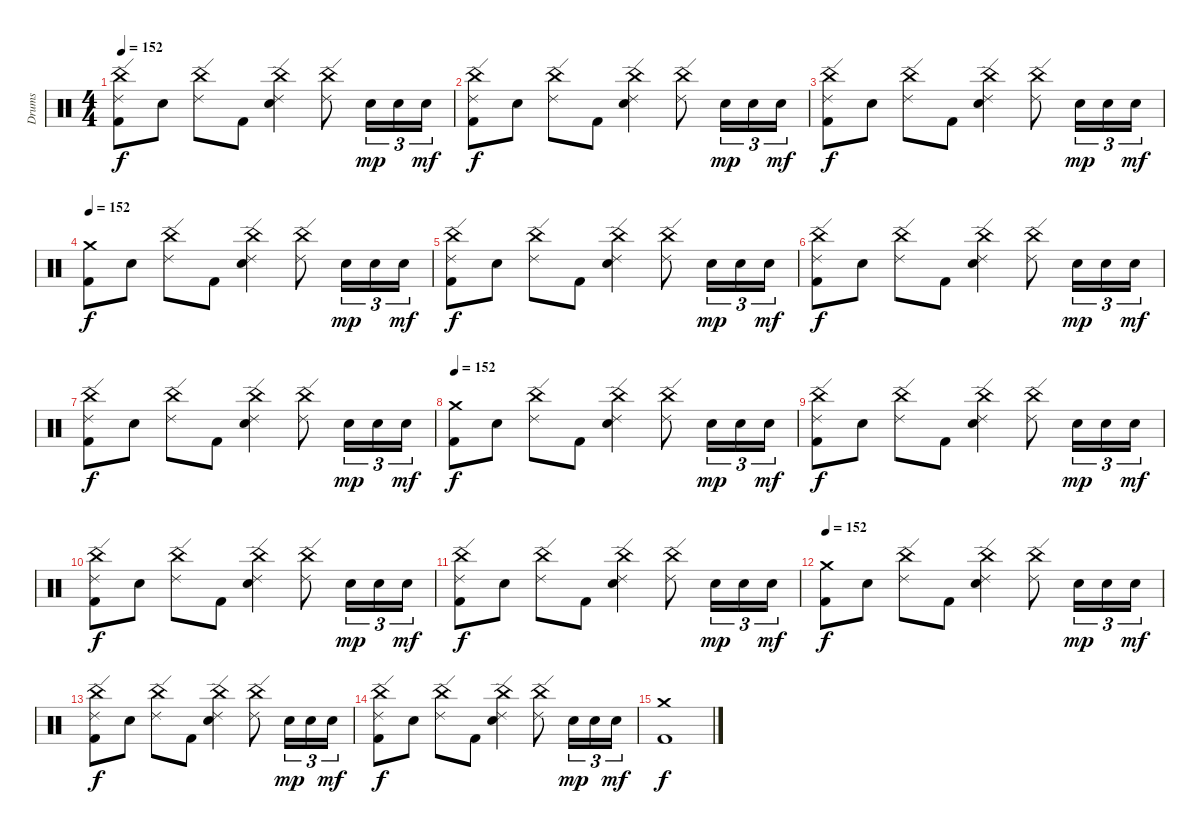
\track ("Drums" "Drums") {instrument percussion}
\staff {score}
\articulation defaults
\ts (4 4)
\tempo 152
\clef neutral
\ks c
("China (hit)" "Ride (edge) 2" "Kick (hit) 2").8{dy f} "Snare (hit) 2".8 ("China (hit)" "Ride (edge) 2").8 "Kick (hit) 2".8 ("China (hit)" "Ride (edge) 2" "Snare (hit) 2").4 ("China (hit)" "Ride (edge) 2").8 "Snare (hit) 2".16{tu (3 2) dy mp} "Snare (hit) 2".16{tu (3 2)} "Snare (hit) 2".16{tu (3 2) dy mf} |
("China (hit)" "Ride (edge) 2" "Kick (hit) 2").8{dy f} "Snare (hit) 2".8 ("China (hit)" "Ride (edge) 2").8 "Kick (hit) 2".8 ("China (hit)" "Ride (edge) 2" "Snare (hit) 2").4 ("China (hit)" "Ride (edge) 2").8 "Snare (hit) 2".16{tu (3 2) dy mp} "Snare (hit) 2".16{tu (3 2)} "Snare (hit) 2".16{tu (3 2) dy mf} |
("China (hit)" "Ride (edge) 2" "Kick (hit) 2").8{dy f} "Snare (hit) 2".8 ("China (hit)" "Ride (edge) 2").8 "Kick (hit) 2".8 ("China (hit)" "Ride (edge) 2" "Snare (hit) 2").4 ("China (hit)" "Ride (edge) 2").8 "Snare (hit) 2".16{tu (3 2) dy mp} "Snare (hit) 2".16{tu (3 2)} "Snare (hit) 2".16{tu (3 2) dy mf} |
\tempo 152
("Crash medium (hit)" "Kick (hit) 2").8{dy f} "Snare (hit) 2".8 ("China (hit)" "Ride (edge) 2").8 "Kick (hit) 2".8 ("China (hit)" "Ride (edge) 2" "Snare (hit) 2").4 ("China (hit)" "Ride (edge) 2").8 "Snare (hit) 2".16{tu (3 2) dy mp} "Snare (hit) 2".16{tu (3 2)} "Snare (hit) 2".16{tu (3 2) dy mf} |
("China (hit)" "Ride (edge) 2" "Kick (hit) 2").8{dy f} "Snare (hit) 2".8 ("China (hit)" "Ride (edge) 2").8 "Kick (hit) 2".8 ("China (hit)" "Ride (edge) 2" "Snare (hit) 2").4 ("China (hit)" "Ride (edge) 2").8 "Snare (hit) 2".16{tu (3 2) dy mp} "Snare (hit) 2".16{tu (3 2)} "Snare (hit) 2".16{tu (3 2) dy mf} |
("China (hit)" "Ride (edge) 2" "Kick (hit) 2").8{dy f} "Snare (hit) 2".8 ("China (hit)" "Ride (edge) 2").8 "Kick (hit) 2".8 ("China (hit)" "Ride (edge) 2" "Snare (hit) 2").4 ("China (hit)" "Ride (edge) 2").8 "Snare (hit) 2".16{tu (3 2) dy mp} "Snare (hit) 2".16{tu (3 2)} "Snare (hit) 2".16{tu (3 2) dy mf} |
("China (hit)" "Ride (edge) 2" "Kick (hit) 2").8{dy f} "Snare (hit) 2".8 ("China (hit)" "Ride (edge) 2").8 "Kick (hit) 2".8 ("China (hit)" "Ride (edge) 2" "Snare (hit) 2").4 ("China (hit)" "Ride (edge) 2").8 "Snare (hit) 2".16{tu (3 2) dy mp} "Snare (hit) 2".16{tu (3 2)} "Snare (hit) 2".16{tu (3 2) dy mf} |
\tempo 152
("Crash medium (hit)" "Kick (hit) 2").8{dy f} "Snare (hit) 2".8 ("China (hit)" "Ride (edge) 2").8 "Kick (hit) 2".8 ("China (hit)" "Ride (edge) 2" "Snare (hit) 2").4 ("China (hit)" "Ride (edge) 2").8 "Snare (hit) 2".16{tu (3 2) dy mp} "Snare (hit) 2".16{tu (3 2)} "Snare (hit) 2".16{tu (3 2) dy mf} |
("China (hit)" "Ride (edge) 2" "Kick (hit) 2").8{dy f} "Snare (hit) 2".8 ("China (hit)" "Ride (edge) 2").8 "Kick (hit) 2".8 ("China (hit)" "Ride (edge) 2" "Snare (hit) 2").4 ("China (hit)" "Ride (edge) 2").8 "Snare (hit) 2".16{tu (3 2) dy mp} "Snare (hit) 2".16{tu (3 2)} "Snare (hit) 2".16{tu (3 2) dy mf} |
("China (hit)" "Ride (edge) 2" "Kick (hit) 2").8{dy f} "Snare (hit) 2".8 ("China (hit)" "Ride (edge) 2").8 "Kick (hit) 2".8 ("China (hit)" "Ride (edge) 2" "Snare (hit) 2").4 ("China (hit)" "Ride (edge) 2").8 "Snare (hit) 2".16{tu (3 2) dy mp} "Snare (hit) 2".16{tu (3 2)} "Snare (hit) 2".16{tu (3 2) dy mf} |
("China (hit)" "Ride (edge) 2" "Kick (hit) 2").8{dy f} "Snare (hit) 2".8 ("China (hit)" "Ride (edge) 2").8 "Kick (hit) 2".8 ("China (hit)" "Ride (edge) 2" "Snare (hit) 2").4 ("China (hit)" "Ride (edge) 2").8 "Snare (hit) 2".16{tu (3 2) dy mp} "Snare (hit) 2".16{tu (3 2)} "Snare (hit) 2".16{tu (3 2) dy mf} |
\tempo 152
("Crash medium (hit)" "Kick (hit) 2").8{dy f} "Snare (hit) 2".8 ("China (hit)" "Ride (edge) 2").8 "Kick (hit) 2".8 ("China (hit)" "Ride (edge) 2" "Snare (hit) 2").4 ("China (hit)" "Ride (edge) 2").8 "Snare (hit) 2".16{tu (3 2) dy mp} "Snare (hit) 2".16{tu (3 2)} "Snare (hit) 2".16{tu (3 2) dy mf} |
("China (hit)" "Ride (edge) 2" "Kick (hit) 2").8{dy f} "Snare (hit) 2".8 ("China (hit)" "Ride (edge) 2").8 "Kick (hit) 2".8 ("China (hit)" "Ride (edge) 2" "Snare (hit) 2").4 ("China (hit)" "Ride (edge) 2").8 "Snare (hit) 2".16{tu (3 2) dy mp} "Snare (hit) 2".16{tu (3 2)} "Snare (hit) 2".16{tu (3 2) dy mf} |
("China (hit)" "Ride (edge) 2" "Kick (hit) 2").8{dy f} "Snare (hit) 2".8 ("China (hit)" "Ride (edge) 2").8 "Kick (hit) 2".8 ("China (hit)" "Ride (edge) 2" "Snare (hit) 2").4 ("China (hit)" "Ride (edge) 2").8 "Snare (hit) 2".16{tu (3 2) dy mp} "Snare (hit) 2".16{tu (3 2)} "Snare (hit) 2".16{tu (3 2) dy mf} |
("Crash medium (hit)" "Kick (hit) 2").1{dy f}
